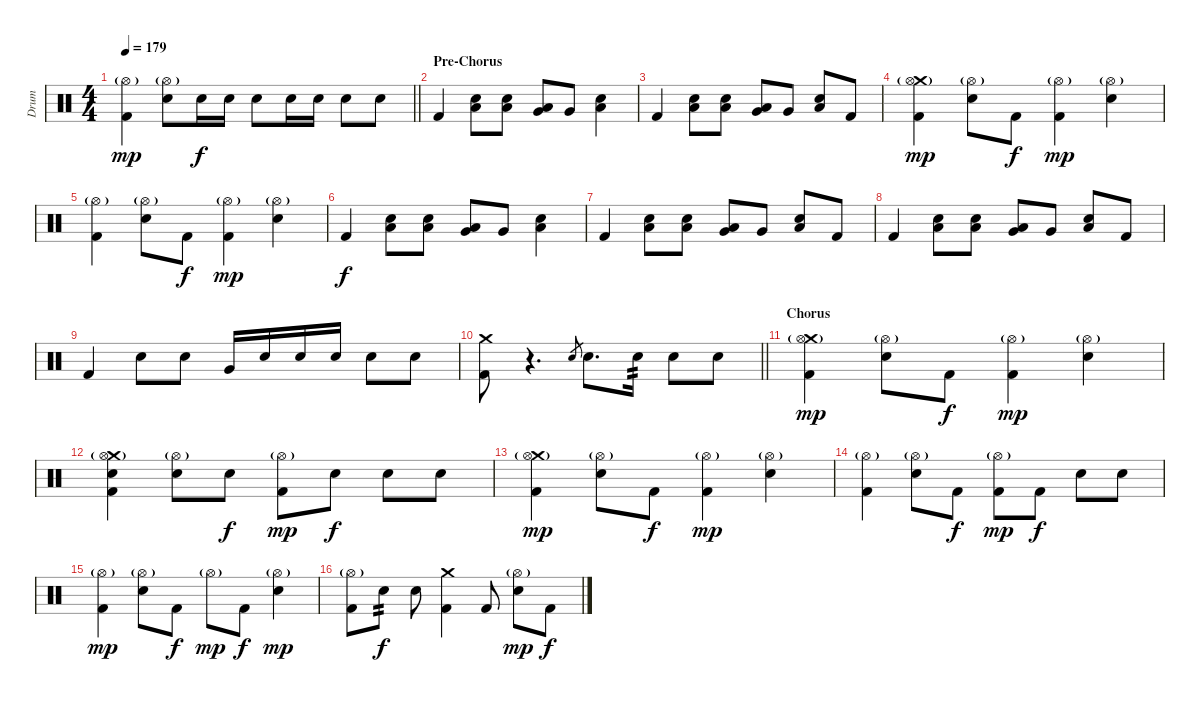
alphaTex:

\track ("Drum" "Drum") {instrument percussion}
\staff {score}
\articulation defaults
\ts (4 4)
\tempo 179
\clef neutral
\barLineRight lightlight
\ks c
("Hi-Hat (open)"{g} "Kick (hit) 2").4{dy mp} ("Hi-Hat (open)"{g} "Electric Snare (hit)").8 "Electric Snare (hit)".16{dy f} "Electric Snare (hit)".16 "Electric Snare (hit)".8 "Electric Snare (hit)".16 "Electric Snare (hit)".16 "Electric Snare (hit)".8 "Electric Snare (hit)".8 |
\section ("" "Pre-Chorus")
"Kick (hit) 2".4 ("Electric Snare (hit)" "Low Floor Tom (hit)").8 ("Electric Snare (hit)" "Low Floor Tom (hit)").8 ("Low Tom (hit)" "Very Low Tom (hit)").8 "Very Low Tom (hit)".8 ("Electric Snare (hit)" "Low Floor Tom (hit)").4 |
"Kick (hit) 2".4 ("Electric Snare (hit)" "Low Floor Tom (hit)").8 ("Electric Snare (hit)" "Low Floor Tom (hit)").8 ("Low Tom (hit)" "Very Low Tom (hit)").8 "Very Low Tom (hit)".8 ("Electric Snare (hit)" "Low Floor Tom (hit)").8 "Kick (hit) 2".8 |
("Crash medium (hit)" "Hi-Hat (open)"{g} "Kick (hit) 2").4{dy mp} ("Hi-Hat (open)"{g} "Electric Snare (hit)").8 "Kick (hit) 2".8{dy f} ("Hi-Hat (open)"{g} "Kick (hit) 2").4{dy mp} ("Hi-Hat (open)"{g} "Electric Snare (hit)").4 |
("Hi-Hat (open)"{g} "Kick (hit) 2").4 ("Hi-Hat (open)"{g} "Electric Snare (hit)").8 "Kick (hit) 2".8{dy f} ("Hi-Hat (open)"{g} "Kick (hit) 2").4{dy mp} ("Hi-Hat (open)"{g} "Electric Snare (hit)").4 |
"Kick (hit) 2".4{dy f} ("Electric Snare (hit)" "Low Floor Tom (hit)").8 ("Electric Snare (hit)" "Low Floor Tom (hit)").8 ("Low Tom (hit)" "Very Low Tom (hit)").8 "Very Low Tom (hit)".8 ("Electric Snare (hit)" "Low Floor Tom (hit)").4 |
"Kick (hit) 2".4 ("Electric Snare (hit)" "Low Floor Tom (hit)").8 ("Electric Snare (hit)" "Low Floor Tom (hit)").8 ("Low Tom (hit)" "Very Low Tom (hit)").8 "Very Low Tom (hit)".8 ("Electric Snare (hit)" "Low Floor Tom (hit)").8 "Kick (hit) 2".8 |
"Kick (hit) 2".4 ("Electric Snare (hit)" "Low Floor Tom (hit)").8 ("Electric Snare (hit)" "Low Floor Tom (hit)").8 ("Low Tom (hit)" "Very Low Tom (hit)").8 "Very Low Tom (hit)".8 ("Electric Snare (hit)" "Low Floor Tom (hit)").8 "Kick (hit) 2".8 |
"Kick (hit) 2".4 "Electric Snare (hit)".8 "Electric Snare (hit)".8 "Very Low Tom (hit)".16 "Electric Snare (hit)".16 "Electric Snare (hit)".16 "Electric Snare (hit)".16 "Electric Snare (hit)".8 "Electric Snare (hit)".8 |
\barLineRight lightlight
("Crash medium (hit)" "Kick (hit) 2").8 r.4{d} "Electric Snare (hit)".8{gr} "Electric Snare (hit)".8{d} "Electric Snare (hit)".16{tp 2} "Electric Snare (hit)".8 "Electric Snare (hit)".8 |
\section ("" "Chorus")
("Crash medium (hit)" "Hi-Hat (open)"{g} "Kick (hit) 2").4{dy mp} ("Hi-Hat (open)"{g} "Electric Snare (hit)").8 "Kick (hit) 2".8{dy f} ("Hi-Hat (open)"{g} "Kick (hit) 2").4{dy mp} ("Hi-Hat (open)"{g} "Electric Snare (hit)").4 |
("Crash medium (hit)" "Hi-Hat (open)"{g} "Electric Snare (hit)" "Kick (hit) 2").4 ("Hi-Hat (open)"{g} "Electric Snare (hit)").8 "Electric Snare (hit)".8{dy f} ("Hi-Hat (open)"{g} "Kick (hit) 2").8{dy mp} "Electric Snare (hit)".8{dy f} "Electric Snare (hit)".8 "Electric Snare (hit)".8 |
("Crash medium (hit)" "Hi-Hat (open)"{g} "Kick (hit) 2").4{dy mp} ("Hi-Hat (open)"{g} "Electric Snare (hit)").8 "Kick (hit) 2".8{dy f} ("Hi-Hat (open)"{g} "Kick (hit) 2").4{dy mp} ("Hi-Hat (open)"{g} "Electric Snare (hit)").4 |
("Hi-Hat (open)"{g} "Kick (hit) 2").4 ("Hi-Hat (open)"{g} "Electric Snare (hit)").8 "Kick (hit) 2".8{dy f} ("Hi-Hat (open)"{g} "Kick (hit) 2").8{dy mp} "Kick (hit) 2".8{dy f} "Electric Snare (hit)".8 "Electric Snare (hit)".8 |
("Hi-Hat (open)"{g} "Kick (hit) 2").4{dy mp} ("Hi-Hat (open)"{g} "Electric Snare (hit)").8 "Kick (hit) 2".8{dy f} "Hi-Hat (open)"{g}.8{dy mp} "Kick (hit) 2".8{dy f} ("Hi-Hat (open)"{g} "Electric Snare (hit)").4{dy mp} |
("Hi-Hat (open)"{g} "Kick (hit) 2").8 "Electric Snare (hit)".8{tp 2 dy f} "Electric Snare (hit)".8 ("Crash medium (hit)" "Kick (hit) 2").4 "Kick (hit) 2".8 ("Hi-Hat (open)"{g} "Electric Snare (hit)").8{dy mp} "Kick (hit) 2".8{dy f}
